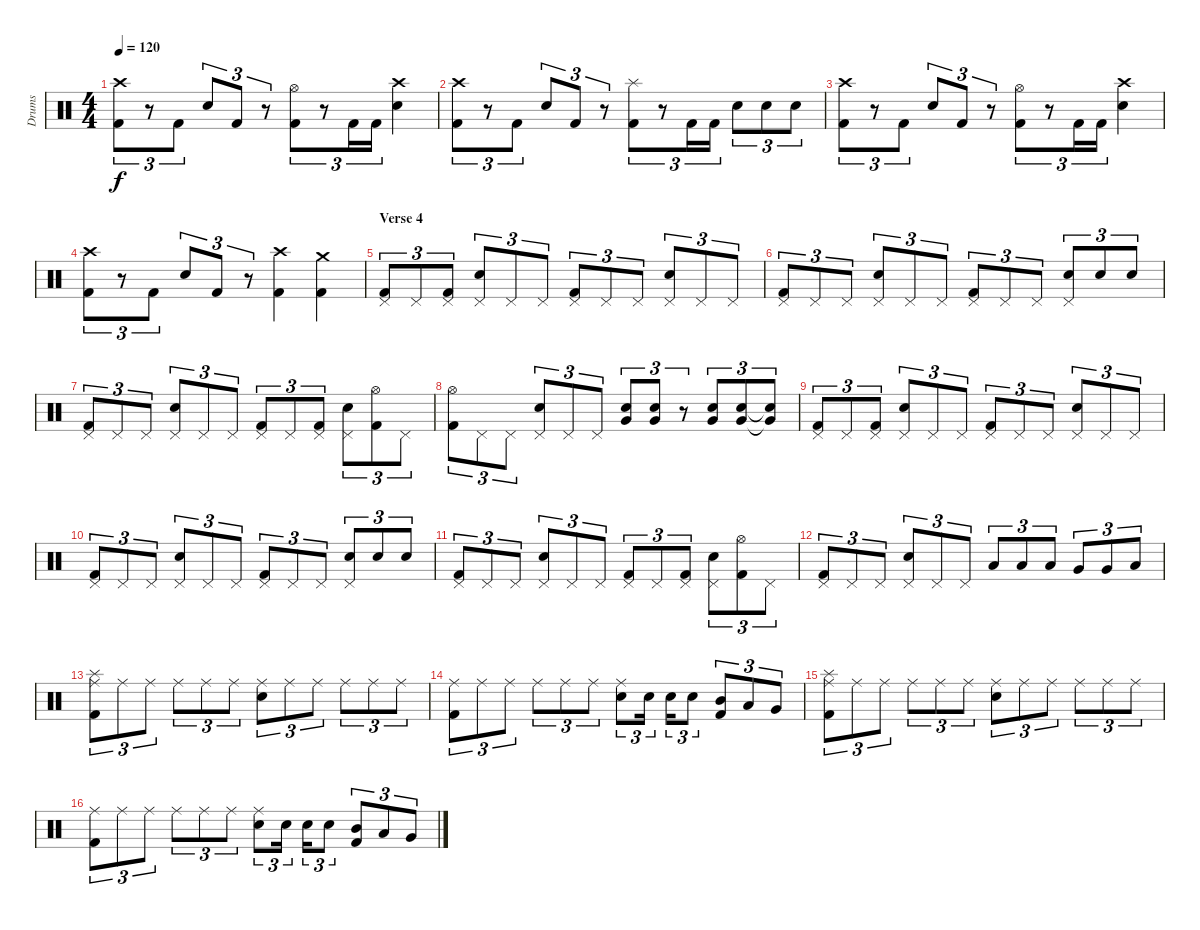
\track ("Drums" "Drums") {instrument percussion}
\staff {score}
\articulation defaults
\ts (4 4)
\tempo 120
\clef neutral
\ks c
("Crash high (hit)" "Kick (hit) 2").8{tu (3 2) dy f} r.8{tu (3 2)} "Kick (hit) 2".8{tu (3 2)} "Snare (hit) 2".8{tu (3 2)} "Kick (hit) 2".8{tu (3 2)} r.8{tu (3 2)} ("Hi-Hat (open)" "Kick (hit) 2").8{tu (3 2)} r.8{tu (3 2)} "Kick (hit) 2".16{tu (3 2)} "Kick (hit) 2".16{tu (3 2)} ("Crash high (hit)" "Snare (hit) 2").4 |
("Crash high (hit)" "Kick (hit) 2").8{tu (3 2)} r.8{tu (3 2)} "Kick (hit) 2".8{tu (3 2)} "Snare (hit) 2".8{tu (3 2)} "Kick (hit) 2".8{tu (3 2)} r.8{tu (3 2)} ("Splash (hit)" "Kick (hit) 2").8{tu (3 2)} r.8{tu (3 2)} "Kick (hit) 2".16{tu (3 2)} "Kick (hit) 2".16{tu (3 2)} "Snare (hit) 2".8{tu (3 2)} "Snare (hit) 2".8{tu (3 2)} "Snare (hit) 2".8{tu (3 2)} |
("Crash high (hit)" "Kick (hit) 2").8{tu (3 2)} r.8{tu (3 2)} "Kick (hit) 2".8{tu (3 2)} "Snare (hit) 2".8{tu (3 2)} "Kick (hit) 2".8{tu (3 2)} r.8{tu (3 2)} ("Hi-Hat (open)" "Kick (hit) 2").8{tu (3 2)} r.8{tu (3 2)} "Kick (hit) 2".16{tu (3 2)} "Kick (hit) 2".16{tu (3 2)} ("Crash high (hit)" "Snare (hit) 2").4 |
("Crash high (hit)" "Kick (hit) 2").8{tu (3 2)} r.8{tu (3 2)} "Kick (hit) 2".8{tu (3 2)} "Snare (hit) 2".8{tu (3 2)} "Kick (hit) 2".8{tu (3 2)} r.8{tu (3 2)} ("Crash high (hit)" "Kick (hit) 2").4 ("Crash medium (hit)" "Kick (hit) 2").4 |
\section ("" "Verse 4")
("Pedal Hi-Hat (hit)" "Kick (hit) 2").8{tu (3 2)} "Pedal Hi-Hat (hit)".8{tu (3 2)} ("Pedal Hi-Hat (hit)" "Kick (hit) 2").8{tu (3 2)} ("Pedal Hi-Hat (hit)" "Snare (hit) 2").8{tu (3 2)} "Pedal Hi-Hat (hit)".8{tu (3 2)} "Pedal Hi-Hat (hit)".8{tu (3 2)} ("Pedal Hi-Hat (hit)" "Kick (hit) 2").8{tu (3 2)} "Pedal Hi-Hat (hit)".8{tu (3 2)} "Pedal Hi-Hat (hit)".8{tu (3 2)} ("Pedal Hi-Hat (hit)" "Snare (hit) 2").8{tu (3 2)} "Pedal Hi-Hat (hit)".8{tu (3 2)} "Pedal Hi-Hat (hit)".8{tu (3 2)} |
("Pedal Hi-Hat (hit)" "Kick (hit) 2").8{tu (3 2)} "Pedal Hi-Hat (hit)".8{tu (3 2)} "Pedal Hi-Hat (hit)".8{tu (3 2)} ("Pedal Hi-Hat (hit)" "Snare (hit) 2").8{tu (3 2)} "Pedal Hi-Hat (hit)".8{tu (3 2)} "Pedal Hi-Hat (hit)".8{tu (3 2)} ("Pedal Hi-Hat (hit)" "Kick (hit) 2").8{tu (3 2)} "Pedal Hi-Hat (hit)".8{tu (3 2)} "Pedal Hi-Hat (hit)".8{tu (3 2)} ("Pedal Hi-Hat (hit)" "Snare (hit) 2").8{tu (3 2)} "Snare (hit) 2".8{tu (3 2)} "Snare (hit) 2".8{tu (3 2)} |
("Pedal Hi-Hat (hit)" "Kick (hit) 2").8{tu (3 2)} "Pedal Hi-Hat (hit)".8{tu (3 2)} "Pedal Hi-Hat (hit)".8{tu (3 2)} ("Pedal Hi-Hat (hit)" "Snare (hit) 2").8{tu (3 2)} "Pedal Hi-Hat (hit)".8{tu (3 2)} "Pedal Hi-Hat (hit)".8{tu (3 2)} ("Pedal Hi-Hat (hit)" "Kick (hit) 2").8{tu (3 2)} "Pedal Hi-Hat (hit)".8{tu (3 2)} ("Pedal Hi-Hat (hit)" "Kick (hit) 2").8{tu (3 2)} ("Pedal Hi-Hat (hit)" "Snare (hit) 2").8{tu (3 2)} ("Hi-Hat (open)" "Kick (hit) 2").8{tu (3 2)} "Pedal Hi-Hat (hit)".8{tu (3 2)} |
("Hi-Hat (open)" "Kick (hit) 2").8{tu (3 2)} "Pedal Hi-Hat (hit)".8{tu (3 2)} "Pedal Hi-Hat (hit)".8{tu (3 2)} ("Pedal Hi-Hat (hit)" "Snare (hit) 2").8{tu (3 2)} "Pedal Hi-Hat (hit)".8{tu (3 2)} "Pedal Hi-Hat (hit)".8{tu (3 2)} ("Very Low Tom (hit)" "Snare (hit) 2").8{tu (3 2)} ("Very Low Tom (hit)" "Snare (hit) 2").8{tu (3 2)} r.8{tu (3 2)} ("Very Low Tom (hit)" "Snare (hit) 2").8{tu (3 2)} ("Very Low Tom (hit)" "Snare (hit) 2").8{tu (3 2)} ("Very Low Tom (hit)"{t} "Snare (hit) 2"{t}).8{tu (3 2)} |
("Pedal Hi-Hat (hit)" "Kick (hit) 2").8{tu (3 2)} "Pedal Hi-Hat (hit)".8{tu (3 2)} ("Pedal Hi-Hat (hit)" "Kick (hit) 2").8{tu (3 2)} ("Pedal Hi-Hat (hit)" "Snare (hit) 2").8{tu (3 2)} "Pedal Hi-Hat (hit)".8{tu (3 2)} "Pedal Hi-Hat (hit)".8{tu (3 2)} ("Pedal Hi-Hat (hit)" "Kick (hit) 2").8{tu (3 2)} "Pedal Hi-Hat (hit)".8{tu (3 2)} "Pedal Hi-Hat (hit)".8{tu (3 2)} ("Pedal Hi-Hat (hit)" "Snare (hit) 2").8{tu (3 2)} "Pedal Hi-Hat (hit)".8{tu (3 2)} "Pedal Hi-Hat (hit)".8{tu (3 2)} |
("Pedal Hi-Hat (hit)" "Kick (hit) 2").8{tu (3 2)} "Pedal Hi-Hat (hit)".8{tu (3 2)} "Pedal Hi-Hat (hit)".8{tu (3 2)} ("Pedal Hi-Hat (hit)" "Snare (hit) 2").8{tu (3 2)} "Pedal Hi-Hat (hit)".8{tu (3 2)} "Pedal Hi-Hat (hit)".8{tu (3 2)} ("Pedal Hi-Hat (hit)" "Kick (hit) 2").8{tu (3 2)} "Pedal Hi-Hat (hit)".8{tu (3 2)} "Pedal Hi-Hat (hit)".8{tu (3 2)} ("Pedal Hi-Hat (hit)" "Snare (hit) 2").8{tu (3 2)} "Snare (hit) 2".8{tu (3 2)} "Snare (hit) 2".8{tu (3 2)} |
("Pedal Hi-Hat (hit)" "Kick (hit) 2").8{tu (3 2)} "Pedal Hi-Hat (hit)".8{tu (3 2)} "Pedal Hi-Hat (hit)".8{tu (3 2)} ("Pedal Hi-Hat (hit)" "Snare (hit) 2").8{tu (3 2)} "Pedal Hi-Hat (hit)".8{tu (3 2)} "Pedal Hi-Hat (hit)".8{tu (3 2)} ("Pedal Hi-Hat (hit)" "Kick (hit) 2").8{tu (3 2)} "Pedal Hi-Hat (hit)".8{tu (3 2)} ("Pedal Hi-Hat (hit)" "Kick (hit) 2").8{tu (3 2)} ("Pedal Hi-Hat (hit)" "Snare (hit) 2").8{tu (3 2)} ("Hi-Hat (open)" "Kick (hit) 2").8{tu (3 2)} "Pedal Hi-Hat (hit)".8{tu (3 2)} |
("Pedal Hi-Hat (hit)" "Kick (hit) 2").8{tu (3 2)} "Pedal Hi-Hat (hit)".8{tu (3 2)} "Pedal Hi-Hat (hit)".8{tu (3 2)} ("Pedal Hi-Hat (hit)" "Snare (hit) 2").8{tu (3 2)} "Pedal Hi-Hat (hit)".8{tu (3 2)} "Pedal Hi-Hat (hit)".8{tu (3 2)} "Low Tom (hit)".8{tu (3 2)} "Low Tom (hit)".8{tu (3 2)} "Low Tom (hit)".8{tu (3 2)} "Very Low Tom (hit)".8{tu (3 2)} "Very Low Tom (hit)".8{tu (3 2)} "Low Floor Tom (hit)".8{tu (3 2)} |
("Ride (middle)" "Splash (hit)" "Kick (hit) 2").8{tu (3 2)} "Ride (middle)".8{tu (3 2)} "Ride (middle)".8{tu (3 2)} "Ride (middle)".8{tu (3 2)} "Ride (middle)".8{tu (3 2)} "Ride (middle)".8{tu (3 2)} ("Ride (middle)" "Snare (hit) 2").8{tu (3 2)} "Ride (middle)".8{tu (3 2)} "Ride (middle)".8{tu (3 2)} "Ride (middle)".8{tu (3 2)} "Ride (middle)".8{tu (3 2)} "Ride (middle)".8{tu (3 2)} |
("Ride (middle)" "Kick (hit) 2").8{tu (3 2)} "Ride (middle)".8{tu (3 2)} "Ride (middle)".8{tu (3 2)} "Ride (middle)".8{tu (3 2)} "Ride (middle)".8{tu (3 2)} "Ride (middle)".8{tu (3 2)} ("Ride (middle)" "Snare (hit) 2").8{tu (3 2)} "Snare (hit) 2".16{tu (3 2)} "Snare (hit) 2".16{tu (3 2)} "Snare (hit) 2".8{tu (3 2)} ("Mid Tom (hit)" "Kick (hit) 2").8{tu (3 2)} "Low Tom (hit)".8{tu (3 2)} "Very Low Tom (hit)".8{tu (3 2)} |
("Ride (middle)" "Splash (hit)" "Kick (hit) 2").8{tu (3 2)} "Ride (middle)".8{tu (3 2)} "Ride (middle)".8{tu (3 2)} "Ride (middle)".8{tu (3 2)} "Ride (middle)".8{tu (3 2)} "Ride (middle)".8{tu (3 2)} ("Ride (middle)" "Snare (hit) 2").8{tu (3 2)} "Ride (middle)".8{tu (3 2)} "Ride (middle)".8{tu (3 2)} "Ride (middle)".8{tu (3 2)} "Ride (middle)".8{tu (3 2)} "Ride (middle)".8{tu (3 2)} |
("Ride (middle)" "Kick (hit) 2").8{tu (3 2)} "Ride (middle)".8{tu (3 2)} "Ride (middle)".8{tu (3 2)} "Ride (middle)".8{tu (3 2)} "Ride (middle)".8{tu (3 2)} "Ride (middle)".8{tu (3 2)} ("Ride (middle)" "Snare (hit) 2").8{tu (3 2)} "Snare (hit) 2".16{tu (3 2)} "Snare (hit) 2".16{tu (3 2)} "Snare (hit) 2".8{tu (3 2)} ("Mid Tom (hit)" "Kick (hit) 2").8{tu (3 2)} "Low Tom (hit)".8{tu (3 2)} "Very Low Tom (hit)".8{tu (3 2)}
